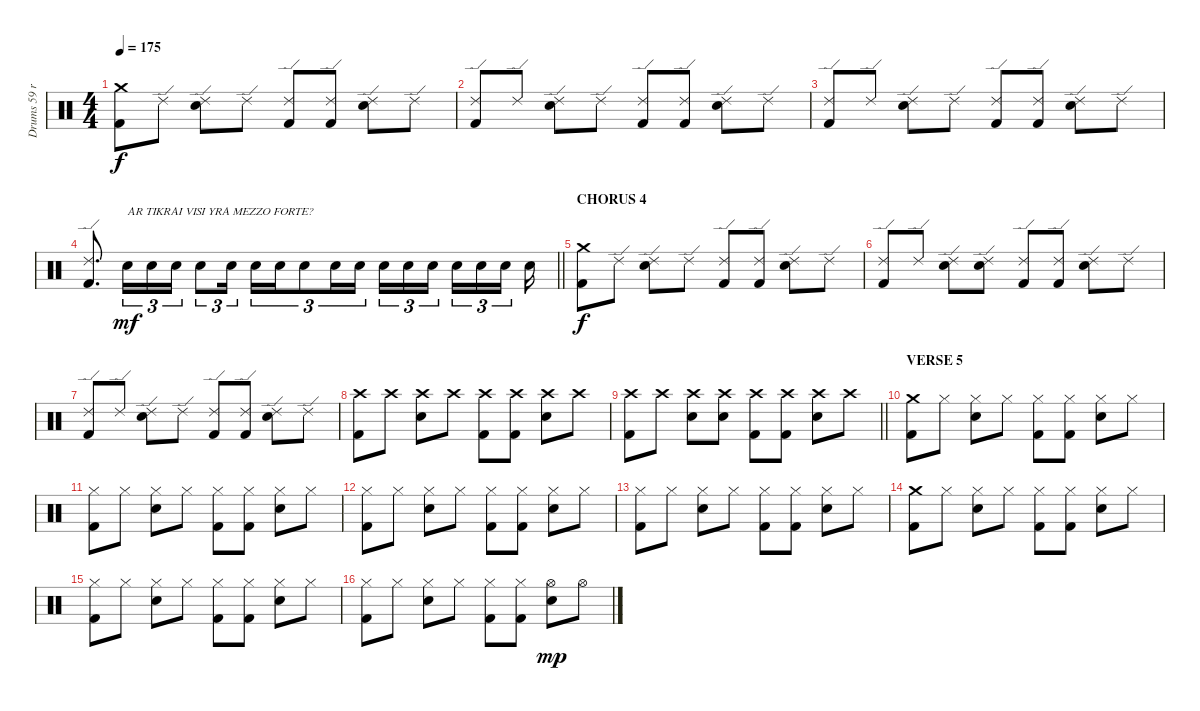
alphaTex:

\track ("Drums 59 ride" "Drums 59 r") {instrument percussion}
\staff {score}
\articulation defaults
\ts (4 4)
\tempo 175
\clef neutral
\ks c
("Crash medium (hit)" "Kick (hit) 2").8{dy f} "Ride (edge) 2".8 ("Ride (edge) 2" "Snare (hit) 2").8 "Ride (edge) 2".8 ("Ride (edge) 2" "Kick (hit) 2").8 ("Ride (edge) 2" "Kick (hit) 2").8 ("Ride (edge) 2" "Snare (hit) 2").8 "Ride (edge) 2".8 |
("Ride (edge) 2" "Kick (hit) 2").8 "Ride (edge) 2".8 ("Ride (edge) 2" "Snare (hit) 2").8 "Ride (edge) 2".8 ("Ride (edge) 2" "Kick (hit) 2").8 ("Ride (edge) 2" "Kick (hit) 2").8 ("Ride (edge) 2" "Snare (hit) 2").8 "Ride (edge) 2".8 |
("Ride (edge) 2" "Kick (hit) 2").8 "Ride (edge) 2".8 ("Ride (edge) 2" "Snare (hit) 2").8 "Ride (edge) 2".8 ("Ride (edge) 2" "Kick (hit) 2").8 ("Ride (edge) 2" "Kick (hit) 2").8 ("Ride (edge) 2" "Snare (hit) 2").8 "Ride (edge) 2".8 |
\barLineRight lightlight
("Ride (edge) 2" "Kick (hit) 2").8{d} "Snare (hit) 2".16{tu (3 2) txt "AR TIKRAI VISI YRA MEZZO FORTE?" dy mf} "Snare (hit) 2".16{tu (3 2)} "Snare (hit) 2".16{tu (3 2)} "Snare (hit) 2".8{tu (3 2)} "Snare (hit) 2".16{tu (3 2) beam splitsecondary} "Snare (hit) 2".16{tu (3 2)} "Snare (hit) 2".16{tu (3 2)} "Snare (hit) 2".8{tu (3 2)} "Snare (hit) 2".16{tu (3 2)} "Snare (hit) 2".16{tu (3 2) beam splitsecondary} "Snare (hit) 2".16{tu (3 2)} "Snare (hit) 2".16{tu (3 2)} "Snare (hit) 2".16{tu (3 2) beam splitsecondary} "Snare (hit) 2".16{tu (3 2)} "Snare (hit) 2".16{tu (3 2)} "Snare (hit) 2".16{tu (3 2) beam splitsecondary} "Snare (hit) 2".16 |
\section ("" "CHORUS 4")
("Crash medium (hit)" "Kick (hit) 2").8{dy f} "Ride (edge) 2".8 ("Ride (edge) 2" "Snare (hit) 2").8 "Ride (edge) 2".8 ("Ride (edge) 2" "Kick (hit) 2").8 ("Ride (edge) 2" "Kick (hit) 2").8 ("Ride (edge) 2" "Snare (hit) 2").8 "Ride (edge) 2".8 |
("Ride (edge) 2" "Kick (hit) 2").8 "Ride (edge) 2".8 ("Ride (edge) 2" "Snare (hit) 2").8 ("Ride (edge) 2" "Snare (hit) 2").8 ("Ride (edge) 2" "Kick (hit) 2").8 ("Ride (edge) 2" "Kick (hit) 2").8 ("Ride (edge) 2" "Snare (hit) 2").8 "Ride (edge) 2".8 |
("Ride (edge) 2" "Kick (hit) 2").8 "Ride (edge) 2".8 ("Ride (edge) 2" "Snare (hit) 2").8 "Ride (edge) 2".8 ("Ride (edge) 2" "Kick (hit) 2").8 ("Ride (edge) 2" "Kick (hit) 2").8 ("Ride (edge) 2" "Snare (hit) 2").8 "Ride (edge) 2".8 |
("Crash high (hit)" "Kick (hit) 2").8 "Crash high (hit)".8 ("Crash high (hit)" "Snare (hit) 2").8 "Crash high (hit)".8 ("Crash high (hit)" "Kick (hit) 2").8 ("Crash high (hit)" "Kick (hit) 2").8 ("Crash high (hit)" "Snare (hit) 2").8 "Crash high (hit)".8 |
\barLineRight lightlight
("Crash high (hit)" "Kick (hit) 2").8 "Crash high (hit)".8 ("Crash high (hit)" "Snare (hit) 2").8 ("Crash high (hit)" "Snare (hit) 2").8 ("Crash high (hit)" "Kick (hit) 2").8 ("Crash high (hit)" "Kick (hit) 2").8 ("Crash high (hit)" "Snare (hit) 2").8 "Crash high (hit)".8 |
\section ("" "VERSE 5")
("Crash medium (hit)" "Kick (hit) 2").8 "Hi-Hat (closed)".8 ("Hi-Hat (closed)" "Snare (hit) 2").8 "Hi-Hat (closed)".8 ("Hi-Hat (closed)" "Kick (hit) 2").8 ("Hi-Hat (closed)" "Kick (hit) 2").8 ("Hi-Hat (closed)" "Snare (hit) 2").8 "Hi-Hat (closed)".8 |
("Hi-Hat (closed)" "Kick (hit) 2").8 "Hi-Hat (closed)".8 ("Hi-Hat (closed)" "Snare (hit) 2").8 "Hi-Hat (closed)".8 ("Hi-Hat (closed)" "Kick (hit) 2").8 ("Hi-Hat (closed)" "Kick (hit) 2").8 ("Hi-Hat (closed)" "Snare (hit) 2").8 "Hi-Hat (closed)".8 |
("Hi-Hat (closed)" "Kick (hit) 2").8 "Hi-Hat (closed)".8 ("Hi-Hat (closed)" "Snare (hit) 2").8 "Hi-Hat (closed)".8 ("Hi-Hat (closed)" "Kick (hit) 2").8 ("Hi-Hat (closed)" "Kick (hit) 2").8 ("Hi-Hat (closed)" "Snare (hit) 2").8 "Hi-Hat (closed)".8 |
("Hi-Hat (closed)" "Kick (hit) 2").8 "Hi-Hat (closed)".8 ("Hi-Hat (closed)" "Snare (hit) 2").8 "Hi-Hat (closed)".8 ("Hi-Hat (closed)" "Kick (hit) 2").8 ("Hi-Hat (closed)" "Kick (hit) 2").8 ("Hi-Hat (closed)" "Snare (hit) 2").8 "Hi-Hat (closed)".8 |
("Crash medium (hit)" "Kick (hit) 2").8 "Hi-Hat (closed)".8 ("Hi-Hat (closed)" "Snare (hit) 2").8 "Hi-Hat (closed)".8 ("Hi-Hat (closed)" "Kick (hit) 2").8 ("Hi-Hat (closed)" "Kick (hit) 2").8 ("Hi-Hat (closed)" "Snare (hit) 2").8 "Hi-Hat (closed)".8 |
("Hi-Hat (closed)" "Kick (hit) 2").8 "Hi-Hat (closed)".8 ("Hi-Hat (closed)" "Snare (hit) 2").8 "Hi-Hat (closed)".8 ("Hi-Hat (closed)" "Kick (hit) 2").8 ("Hi-Hat (closed)" "Kick (hit) 2").8 ("Hi-Hat (closed)" "Snare (hit) 2").8 "Hi-Hat (closed)".8 |
("Hi-Hat (closed)" "Kick (hit) 2").8 "Hi-Hat (closed)".8 ("Hi-Hat (closed)" "Snare (hit) 2").8 "Hi-Hat (closed)".8 ("Hi-Hat (closed)" "Kick (hit) 2").8 ("Hi-Hat (closed)" "Kick (hit) 2").8 ("Hi-Hat (open)" "Snare (hit) 2").8{dy mp} "Hi-Hat (open)".8
